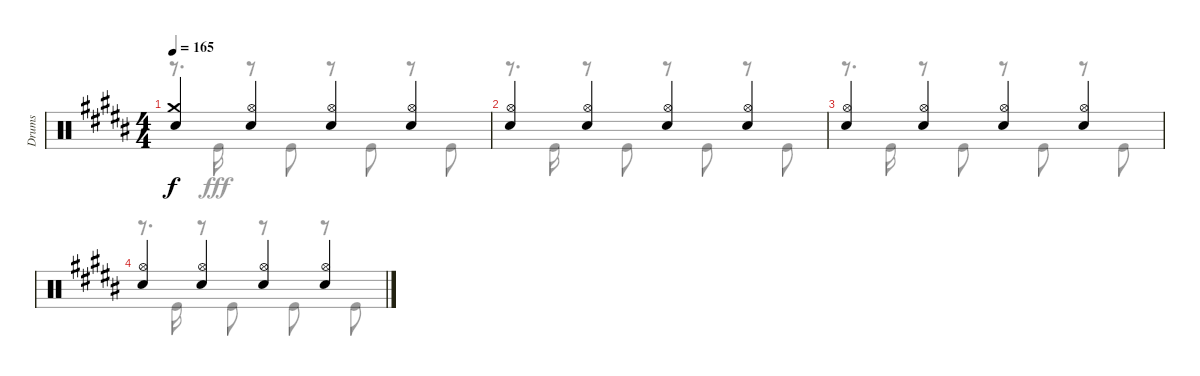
\track ("Drums" "Drums") {instrument percussion}
\staff {score}
\articulation defaults
\voice
\ts (4 4)
\tempo 165
\clef neutral
\ks b
("Crash medium (hit)" "Snare (hit) 2").4{dy f} ("Hi-Hat (open)" "Snare (hit) 2").4 ("Hi-Hat (open)" "Snare (hit) 2").4 ("Hi-Hat (open)" "Snare (hit) 2").4 |
("Hi-Hat (open)" "Snare (hit) 2").4 ("Hi-Hat (open)" "Snare (hit) 2").4 ("Hi-Hat (open)" "Snare (hit) 2").4 ("Hi-Hat (open)" "Snare (hit) 2").4 |
("Hi-Hat (open)" "Snare (hit) 2").4 ("Hi-Hat (open)" "Snare (hit) 2").4 ("Hi-Hat (open)" "Snare (hit) 2").4 ("Hi-Hat (open)" "Snare (hit) 2").4 |
("Hi-Hat (open)" "Snare (hit) 2").4 ("Hi-Hat (open)" "Snare (hit) 2").4 ("Hi-Hat (open)" "Snare (hit) 2").4 ("Hi-Hat (open)" "Snare (hit) 2").4
\voice
\clef neutral
\ottava regular
\simile none
\ks b
r.8{d dy fff} "Kick (hit)".16 r.8 "Kick (hit)".8 r.8 "Kick (hit)".8 r.8 "Kick (hit)".8 |
r.8{d} "Kick (hit)".16 r.8 "Kick (hit)".8 r.8 "Kick (hit)".8 r.8 "Kick (hit)".8 |
r.8{d} "Kick (hit)".16 r.8 "Kick (hit)".8 r.8 "Kick (hit)".8 r.8 "Kick (hit)".8 |
r.8{d} "Kick (hit)".16 r.8 "Kick (hit)".8 r.8 "Kick (hit)".8 r.8 "Kick (hit)".8
